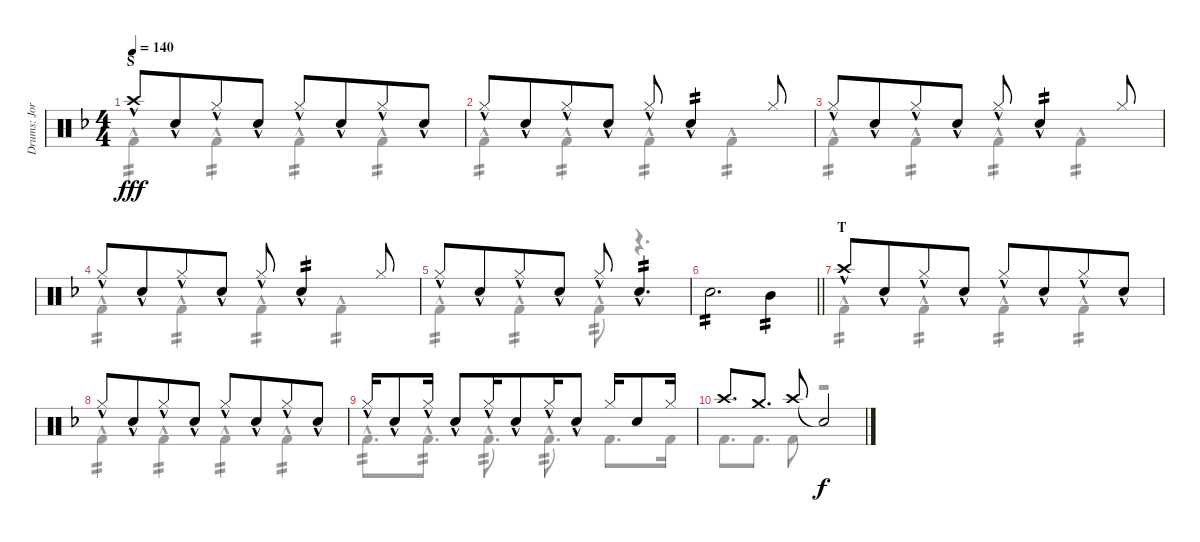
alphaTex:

\track ("Drums: Jorg" "Drums: Jor") {instrument percussion}
\staff {score}
\articulation defaults
\voice
\ts (4 4)
\section ("" "S")
\tempo 140
\clef neutral
\ks f "Crash high (hit)"{hac}.8{dy fff} "Snare (hit) 2"{hac}.8{beam merge} "Hi-Hat (closed)"{hac}.8 "Snare (hit) 2"{hac}.8 "Hi-Hat (closed)"{hac}.8 "Snare (hit) 2"{hac}.8{beam merge} "Hi-Hat (closed)"{hac}.8 "Snare (hit) 2"{hac}.8
|
"Hi-Hat (closed)"{hac}.8 "Snare (hit) 2"{hac}.8{beam merge} "Hi-Hat (closed)"{hac}.8 "Snare (hit) 2"{hac}.8 "Hi-Hat (closed)"{hac}.8 "Snare (hit) 2"{hac}.4{tp 2} "Hi-Hat (closed)".8 |
"Hi-Hat (closed)"{hac}.8 "Snare (hit) 2"{hac}.8{beam merge} "Hi-Hat (closed)"{hac}.8 "Snare (hit) 2"{hac}.8 "Hi-Hat (closed)"{hac}.8 "Snare (hit) 2"{hac}.4{tp 2} "Hi-Hat (closed)".8 |
"Hi-Hat (closed)"{hac}.8 "Snare (hit) 2"{hac}.8{beam merge} "Hi-Hat (closed)"{hac}.8 "Snare (hit) 2"{hac}.8 "Hi-Hat (closed)"{hac}.8 "Snare (hit) 2"{hac}.4{tp 2} "Hi-Hat (closed)".8 |
"Hi-Hat (closed)"{hac}.8 "Snare (hit) 2"{hac}.8{beam merge} "Hi-Hat (closed)"{hac}.8 "Snare (hit) 2"{hac}.8 "Hi-Hat (closed)"{hac}.8 "Snare (hit) 2"{hac}.4{d tp 2} |
\barLineRight lightlight "Snare (hit) 2".2{d tp 2} "Mid Tom (hit)".4{tp 2}
|
\section ("" "T")
"Crash high (hit)"{hac}.8 "Snare (hit) 2"{hac}.8{beam merge} "Hi-Hat (closed)"{hac}.8 "Snare (hit) 2"{hac}.8 "Hi-Hat (closed)"{hac}.8 "Snare (hit) 2"{hac}.8{beam merge} "Hi-Hat (closed)"{hac}.8 "Snare (hit) 2"{hac}.8 |
"Hi-Hat (closed)"{hac}.8 "Snare (hit) 2"{hac}.8{beam merge} "Hi-Hat (closed)"{hac}.8 "Snare (hit) 2"{hac}.8 "Hi-Hat (closed)"{hac}.8 "Snare (hit) 2"{hac}.8{beam merge} "Hi-Hat (closed)"{hac}.8 "Snare (hit) 2"{hac}.8 |
"Hi-Hat (closed)"{hac}.16 "Snare (hit) 2"{hac}.8{beam merge} "Hi-Hat (closed)"{hac}.16 "Snare (hit) 2"{hac}.8 "Hi-Hat (closed)"{hac}.16 "Snare (hit) 2"{hac}.8{beam merge} "Hi-Hat (closed)"{hac}.16 "Snare (hit) 2"{hac}.8 "Hi-Hat (closed)".16 "Snare (hit) 2".8 "Hi-Hat (closed)".16 |
"Crash high (hit)".8{d} "Crash medium (hit)".8{d} "Crash high (hit)".8 "Snare (hit)"{t}.2{dy f}
\voice
\clef neutral
\ottava regular
\simile none
\ks f "Kick (hit) 2"{hac}.4{tp 2 dy fff beam merge} "Kick (hit) 2"{hac}.4{tp 2} "Kick (hit) 2"{hac}.4{tp 2} "Kick (hit) 2"{hac}.4{tp 2}
|
"Kick (hit) 2"{hac}.4{tp 2 beam merge} "Kick (hit) 2"{hac}.4{tp 2} "Kick (hit) 2"{hac}.4{tp 2} "Kick (hit) 2"{hac}.4{tp 2} |
"Kick (hit) 2"{hac}.4{tp 2 beam merge} "Kick (hit) 2"{hac}.4{tp 2} "Kick (hit) 2"{hac}.4{tp 2} "Kick (hit) 2"{hac}.4{tp 2} |
"Kick (hit) 2"{hac}.4{tp 2 beam merge} "Kick (hit) 2"{hac}.4{tp 2} "Kick (hit) 2"{hac}.4{tp 2} "Kick (hit) 2"{hac}.4{tp 2} |
"Kick (hit) 2"{hac}.4{tp 2 beam merge} "Kick (hit) 2"{hac}.4{tp 2} "Kick (hit) 2"{hac}.8{tp 2} r.4{d} |
\barLineRight lightlight
|
"Kick (hit) 2"{hac}.4{tp 2 beam merge} "Kick (hit) 2"{hac}.4{tp 2} "Kick (hit) 2"{hac}.4{tp 2} "Kick (hit) 2"{hac}.4{tp 2} |
"Kick (hit) 2"{hac}.4{tp 2 beam merge} "Kick (hit) 2"{hac}.4{tp 2} "Kick (hit) 2"{hac}.4{tp 2} "Kick (hit) 2"{hac}.4{tp 2} |
"Kick (hit) 2"{hac}.8{d tp 2 beam merge} "Kick (hit) 2"{hac}.8{d tp 2} "Kick (hit) 2"{hac}.8{d tp 2} "Kick (hit) 2"{hac}.8{d tp 2} "Kick (hit) 2".8{d} "Kick (hit) 2".16 |
"Kick (hit) 2".8{d} "Kick (hit) 2".8{d} "Kick (hit) 2".8 r.2
